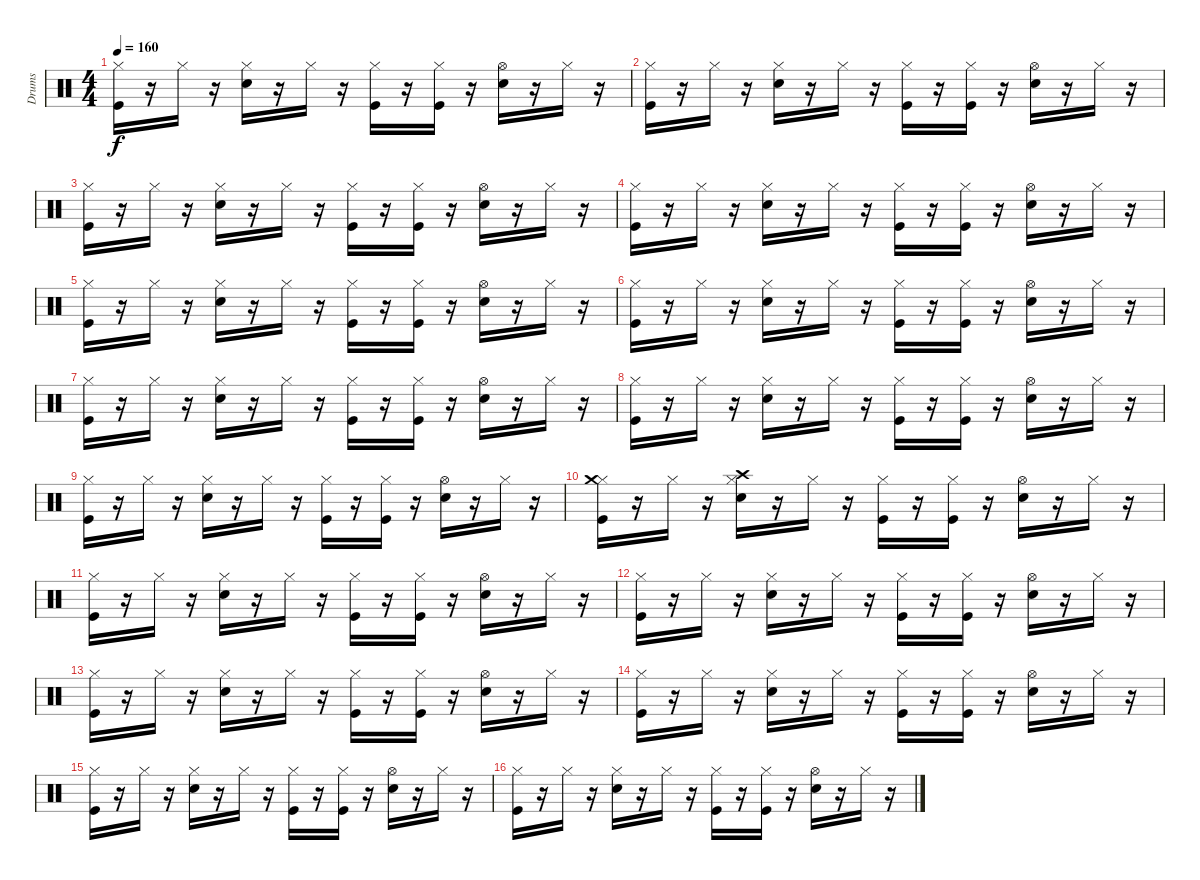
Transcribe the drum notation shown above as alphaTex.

\track ("Drums" "Drums") {instrument percussion}
\staff {score}
\articulation defaults
\ts (4 4)
\tempo 160
\clef neutral
\ks c
("Hi-Hat (closed)" "Kick (hit)").16{dy f} r.16 "Hi-Hat (closed)".16 r.16 ("Hi-Hat (closed)" "Snare (hit) 2").16 r.16 "Hi-Hat (closed)".16 r.16 ("Hi-Hat (closed)" "Kick (hit)").16 r.16 ("Kick (hit)" "Hi-Hat (closed)").16 r.16 ("Hi-Hat (open)" "Snare (hit) 2").16 r.16 "Hi-Hat (closed)".16 r.16 |
("Hi-Hat (closed)" "Kick (hit)").16 r.16 "Hi-Hat (closed)".16 r.16 ("Hi-Hat (closed)" "Snare (hit) 2").16 r.16 "Hi-Hat (closed)".16 r.16 ("Hi-Hat (closed)" "Kick (hit)").16 r.16 ("Kick (hit)" "Hi-Hat (closed)").16 r.16 ("Hi-Hat (open)" "Snare (hit) 2").16 r.16 "Hi-Hat (closed)".16 r.16 |
("Hi-Hat (closed)" "Kick (hit)").16 r.16 "Hi-Hat (closed)".16 r.16 ("Hi-Hat (closed)" "Snare (hit) 2").16 r.16 "Hi-Hat (closed)".16 r.16 ("Hi-Hat (closed)" "Kick (hit)").16 r.16 ("Kick (hit)" "Hi-Hat (closed)").16 r.16 ("Hi-Hat (open)" "Snare (hit) 2").16 r.16 "Hi-Hat (closed)".16 r.16 |
("Hi-Hat (closed)" "Kick (hit)").16 r.16 "Hi-Hat (closed)".16 r.16 ("Hi-Hat (closed)" "Snare (hit) 2").16 r.16 "Hi-Hat (closed)".16 r.16 ("Hi-Hat (closed)" "Kick (hit)").16 r.16 ("Kick (hit)" "Hi-Hat (closed)").16 r.16 ("Hi-Hat (open)" "Snare (hit) 2").16 r.16 "Hi-Hat (closed)".16 r.16 |
("Hi-Hat (closed)" "Kick (hit)").16 r.16 "Hi-Hat (closed)".16 r.16 ("Hi-Hat (closed)" "Snare (hit) 2").16 r.16 "Hi-Hat (closed)".16 r.16 ("Hi-Hat (closed)" "Kick (hit)").16 r.16 ("Kick (hit)" "Hi-Hat (closed)").16 r.16 ("Hi-Hat (open)" "Snare (hit) 2").16 r.16 "Hi-Hat (closed)".16 r.16 |
("Hi-Hat (closed)" "Kick (hit)").16 r.16 "Hi-Hat (closed)".16 r.16 ("Hi-Hat (closed)" "Snare (hit) 2").16 r.16 "Hi-Hat (closed)".16 r.16 ("Hi-Hat (closed)" "Kick (hit)").16 r.16 ("Kick (hit)" "Hi-Hat (closed)").16 r.16 ("Hi-Hat (open)" "Snare (hit) 2").16 r.16 "Hi-Hat (closed)".16 r.16 |
("Hi-Hat (closed)" "Kick (hit)").16 r.16 "Hi-Hat (closed)".16 r.16 ("Hi-Hat (closed)" "Snare (hit) 2").16 r.16 "Hi-Hat (closed)".16 r.16 ("Hi-Hat (closed)" "Kick (hit)").16 r.16 ("Kick (hit)" "Hi-Hat (closed)").16 r.16 ("Hi-Hat (open)" "Snare (hit) 2").16 r.16 "Hi-Hat (closed)".16 r.16 |
("Hi-Hat (closed)" "Kick (hit)").16 r.16 "Hi-Hat (closed)".16 r.16 ("Hi-Hat (closed)" "Snare (hit) 2").16 r.16 "Hi-Hat (closed)".16 r.16 ("Hi-Hat (closed)" "Kick (hit)").16 r.16 ("Kick (hit)" "Hi-Hat (closed)").16 r.16 ("Hi-Hat (open)" "Snare (hit) 2").16 r.16 "Hi-Hat (closed)".16 r.16 |
("Hi-Hat (closed)" "Kick (hit)").16 r.16 "Hi-Hat (closed)".16 r.16 ("Hi-Hat (closed)" "Snare (hit) 2").16 r.16 "Hi-Hat (closed)".16 r.16 ("Hi-Hat (closed)" "Kick (hit)").16 r.16 ("Kick (hit)" "Hi-Hat (closed)").16 r.16 ("Hi-Hat (open)" "Snare (hit) 2").16 r.16 "Hi-Hat (closed)".16 r.16 |
("Hi-Hat (closed)" "Kick (hit)" "Crash medium (hit)").16 r.16 "Hi-Hat (closed)".16 r.16 ("Hi-Hat (closed)" "Snare (hit) 2" "Crash high (hit)").16 r.16 "Hi-Hat (closed)".16 r.16 ("Hi-Hat (closed)" "Kick (hit)").16 r.16 ("Kick (hit)" "Hi-Hat (closed)").16 r.16 ("Hi-Hat (open)" "Snare (hit) 2").16 r.16 "Hi-Hat (closed)".16 r.16 |
("Hi-Hat (closed)" "Kick (hit)").16 r.16 "Hi-Hat (closed)".16 r.16 ("Hi-Hat (closed)" "Snare (hit) 2").16 r.16 "Hi-Hat (closed)".16 r.16 ("Hi-Hat (closed)" "Kick (hit)").16 r.16 ("Kick (hit)" "Hi-Hat (closed)").16 r.16 ("Hi-Hat (open)" "Snare (hit) 2").16 r.16 "Hi-Hat (closed)".16 r.16 |
("Hi-Hat (closed)" "Kick (hit)").16 r.16 "Hi-Hat (closed)".16 r.16 ("Hi-Hat (closed)" "Snare (hit) 2").16 r.16 "Hi-Hat (closed)".16 r.16 ("Hi-Hat (closed)" "Kick (hit)").16 r.16 ("Kick (hit)" "Hi-Hat (closed)").16 r.16 ("Hi-Hat (open)" "Snare (hit) 2").16 r.16 "Hi-Hat (closed)".16 r.16 |
("Hi-Hat (closed)" "Kick (hit)").16 r.16 "Hi-Hat (closed)".16 r.16 ("Hi-Hat (closed)" "Snare (hit) 2").16 r.16 "Hi-Hat (closed)".16 r.16 ("Hi-Hat (closed)" "Kick (hit)").16 r.16 ("Kick (hit)" "Hi-Hat (closed)").16 r.16 ("Hi-Hat (open)" "Snare (hit) 2").16 r.16 "Hi-Hat (closed)".16 r.16 |
("Hi-Hat (closed)" "Kick (hit)").16 r.16 "Hi-Hat (closed)".16 r.16 ("Hi-Hat (closed)" "Snare (hit) 2").16 r.16 "Hi-Hat (closed)".16 r.16 ("Hi-Hat (closed)" "Kick (hit)").16 r.16 ("Kick (hit)" "Hi-Hat (closed)").16 r.16 ("Hi-Hat (open)" "Snare (hit) 2").16 r.16 "Hi-Hat (closed)".16 r.16 |
("Hi-Hat (closed)" "Kick (hit)").16 r.16 "Hi-Hat (closed)".16 r.16 ("Hi-Hat (closed)" "Snare (hit) 2").16 r.16 "Hi-Hat (closed)".16 r.16 ("Hi-Hat (closed)" "Kick (hit)").16 r.16 ("Kick (hit)" "Hi-Hat (closed)").16 r.16 ("Hi-Hat (open)" "Snare (hit) 2").16 r.16 "Hi-Hat (closed)".16 r.16 |
("Hi-Hat (closed)" "Kick (hit)").16{volume 14} r.16 "Hi-Hat (closed)".16 r.16 ("Hi-Hat (closed)" "Snare (hit) 2").16 r.16 "Hi-Hat (closed)".16 r.16 ("Hi-Hat (closed)" "Kick (hit)").16 r.16 ("Kick (hit)" "Hi-Hat (closed)").16 r.16 ("Hi-Hat (open)" "Snare (hit) 2").16 r.16 "Hi-Hat (closed)".16 r.16
